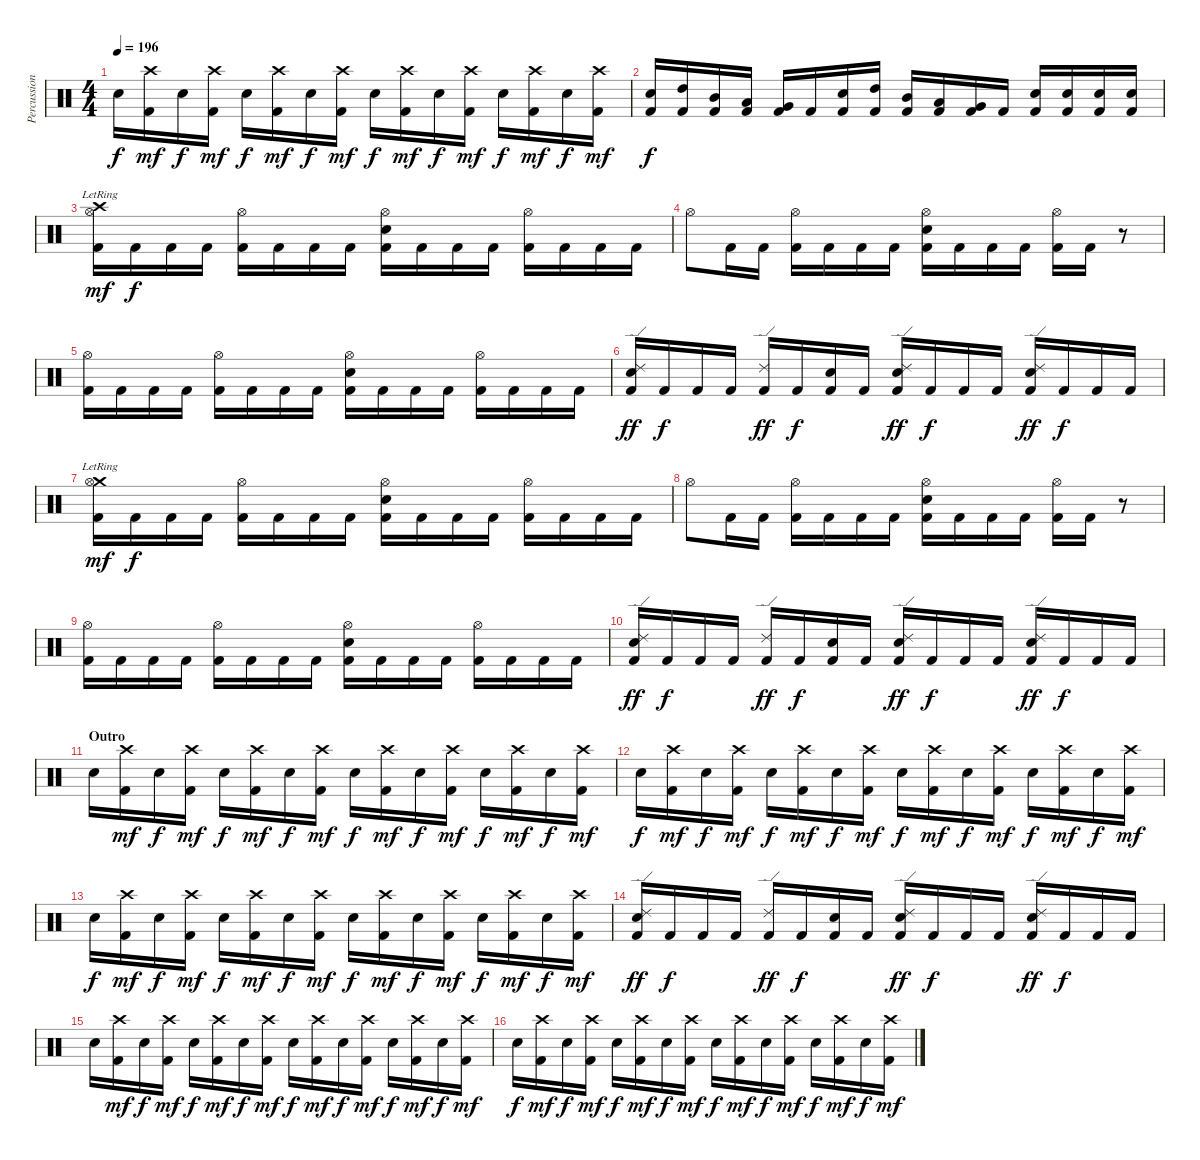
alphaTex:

\track ("Percussions" "Percussion") {instrument percussion}
\staff {score}
\articulation defaults
\ts (4 4)
\tempo 196
\clef neutral
\ks c "Electric Snare (hit)".16{dy f}
("Crash high (hit)" "Kick (hit) 2").16{dy mf} "Electric Snare (hit)".16{dy f} ("Crash high (hit)" "Kick (hit) 2").16{dy mf} "Electric Snare (hit)".16{dy f} ("Crash high (hit)" "Kick (hit) 2").16{dy mf} "Electric Snare (hit)".16{dy f} ("Crash high (hit)" "Kick (hit) 2").16{dy mf} "Electric Snare (hit)".16{dy f} ("Crash high (hit)" "Kick (hit) 2").16{dy mf} "Electric Snare (hit)".16{dy f} ("Crash high (hit)" "Kick (hit) 2").16{dy mf} "Electric Snare (hit)".16{dy f} ("Crash high (hit)" "Kick (hit) 2").16{dy mf} "Electric Snare (hit)".16{dy f} ("Crash high (hit)" "Kick (hit) 2").16{dy mf} |
("Electric Snare (hit)" "Kick (hit) 2").16{dy f} ("High Tom (hit)" "Kick (hit) 2").16 ("Mid Tom (hit)" "Kick (hit) 2").16 ("Low Tom (hit)" "Kick (hit) 2").16 ("Very Low Tom (hit)" "Kick (hit) 2").16 "Kick (hit) 2".16 ("Electric Snare (hit)" "Kick (hit) 2").16 ("High Tom (hit)" "Kick (hit) 2").16 ("Mid Tom (hit)" "Kick (hit) 2").16 ("Low Tom (hit)" "Kick (hit) 2").16 ("Very Low Tom (hit)" "Kick (hit) 2").16 "Kick (hit) 2".16 ("Electric Snare (hit)" "Kick (hit) 2").16 ("Electric Snare (hit)" "Kick (hit) 2").16 ("Electric Snare (hit)" "Kick (hit) 2").16 ("Electric Snare (hit)" "Kick (hit) 2").16 |
("Crash high (hit)"{lr} "Hi-Hat (open)" "Kick (hit) 2").16{dy mf} "Kick (hit) 2".16{dy f} "Kick (hit) 2".16 "Kick (hit) 2".16 ("Hi-Hat (open)" "Kick (hit) 2").16 "Kick (hit) 2".16 "Kick (hit) 2".16 "Kick (hit) 2".16 ("Hi-Hat (open)" "Electric Snare (hit)" "Kick (hit) 2").16 "Kick (hit) 2".16 "Kick (hit) 2".16 "Kick (hit) 2".16 ("Hi-Hat (open)" "Kick (hit) 2").16 "Kick (hit) 2".16 "Kick (hit) 2".16 "Kick (hit) 2".16 |
"Hi-Hat (open)".8 "Kick (hit) 2".16 "Kick (hit) 2".16 ("Hi-Hat (open)" "Kick (hit) 2").16 "Kick (hit) 2".16 "Kick (hit) 2".16 "Kick (hit) 2".16 ("Hi-Hat (open)" "Electric Snare (hit)" "Kick (hit) 2").16 "Kick (hit) 2".16 "Kick (hit) 2".16 "Kick (hit) 2".16 ("Hi-Hat (open)" "Kick (hit) 2").16 "Kick (hit) 2".16 r.8 |
("Hi-Hat (open)" "Kick (hit) 2").16 "Kick (hit) 2".16 "Kick (hit) 2".16 "Kick (hit) 2".16 ("Hi-Hat (open)" "Kick (hit) 2").16 "Kick (hit) 2".16 "Kick (hit) 2".16 "Kick (hit) 2".16 ("Hi-Hat (open)" "Electric Snare (hit)" "Kick (hit) 2").16 "Kick (hit) 2".16 "Kick (hit) 2".16 "Kick (hit) 2".16 ("Hi-Hat (open)" "Kick (hit) 2").16 "Kick (hit) 2".16 "Kick (hit) 2".16 "Kick (hit) 2".16 |
("Ride (edge) 2" "Electric Snare (hit)" "Kick (hit) 2").16{dy ff} "Kick (hit) 2".16{dy f} "Kick (hit) 2".16 "Kick (hit) 2".16 ("Ride (edge) 2" "Kick (hit) 2").16{dy ff} "Kick (hit) 2".16{dy f} ("Electric Snare (hit)" "Kick (hit) 2").16 "Kick (hit) 2".16 ("Ride (edge) 2" "Electric Snare (hit)" "Kick (hit) 2").16{dy ff} "Kick (hit) 2".16{dy f} "Kick (hit) 2".16 "Kick (hit) 2".16 ("Ride (edge) 2" "Electric Snare (hit)" "Kick (hit) 2").16{dy ff} "Kick (hit) 2".16{dy f} "Kick (hit) 2".16 "Kick (hit) 2".16 |
("Crash medium (hit)"{lr} "Hi-Hat (open)" "Kick (hit) 2").16{dy mf} "Kick (hit) 2".16{dy f} "Kick (hit) 2".16 "Kick (hit) 2".16 ("Hi-Hat (open)" "Kick (hit) 2").16 "Kick (hit) 2".16 "Kick (hit) 2".16 "Kick (hit) 2".16 ("Hi-Hat (open)" "Electric Snare (hit)" "Kick (hit) 2").16 "Kick (hit) 2".16 "Kick (hit) 2".16 "Kick (hit) 2".16 ("Hi-Hat (open)" "Kick (hit) 2").16 "Kick (hit) 2".16 "Kick (hit) 2".16 "Kick (hit) 2".16 |
"Hi-Hat (open)".8 "Kick (hit) 2".16 "Kick (hit) 2".16 ("Hi-Hat (open)" "Kick (hit) 2").16 "Kick (hit) 2".16 "Kick (hit) 2".16 "Kick (hit) 2".16 ("Hi-Hat (open)" "Electric Snare (hit)" "Kick (hit) 2").16 "Kick (hit) 2".16 "Kick (hit) 2".16 "Kick (hit) 2".16 ("Hi-Hat (open)" "Kick (hit) 2").16 "Kick (hit) 2".16 r.8 |
("Hi-Hat (open)" "Kick (hit) 2").16 "Kick (hit) 2".16 "Kick (hit) 2".16 "Kick (hit) 2".16 ("Hi-Hat (open)" "Kick (hit) 2").16 "Kick (hit) 2".16 "Kick (hit) 2".16 "Kick (hit) 2".16 ("Hi-Hat (open)" "Electric Snare (hit)" "Kick (hit) 2").16 "Kick (hit) 2".16 "Kick (hit) 2".16 "Kick (hit) 2".16 ("Hi-Hat (open)" "Kick (hit) 2").16 "Kick (hit) 2".16 "Kick (hit) 2".16 "Kick (hit) 2".16 |
("Ride (edge) 2" "Electric Snare (hit)" "Kick (hit) 2").16{dy ff} "Kick (hit) 2".16{dy f} "Kick (hit) 2".16 "Kick (hit) 2".16 ("Ride (edge) 2" "Kick (hit) 2").16{dy ff} "Kick (hit) 2".16{dy f} ("Electric Snare (hit)" "Kick (hit) 2").16 "Kick (hit) 2".16 ("Ride (edge) 2" "Electric Snare (hit)" "Kick (hit) 2").16{dy ff} "Kick (hit) 2".16{dy f} "Kick (hit) 2".16 "Kick (hit) 2".16 ("Ride (edge) 2" "Electric Snare (hit)" "Kick (hit) 2").16{dy ff} "Kick (hit) 2".16{dy f} "Kick (hit) 2".16 "Kick (hit) 2".16 |
\section ("" "Outro")
"Electric Snare (hit)".16 ("Crash high (hit)" "Kick (hit) 2").16{dy mf} "Electric Snare (hit)".16{dy f} ("Crash high (hit)" "Kick (hit) 2").16{dy mf} "Electric Snare (hit)".16{dy f} ("Crash high (hit)" "Kick (hit) 2").16{dy mf} "Electric Snare (hit)".16{dy f} ("Crash high (hit)" "Kick (hit) 2").16{dy mf} "Electric Snare (hit)".16{dy f} ("Crash high (hit)" "Kick (hit) 2").16{dy mf} "Electric Snare (hit)".16{dy f} ("Crash high (hit)" "Kick (hit) 2").16{dy mf} "Electric Snare (hit)".16{dy f} ("Crash high (hit)" "Kick (hit) 2").16{dy mf} "Electric Snare (hit)".16{dy f} ("Crash high (hit)" "Kick (hit) 2").16{dy mf} |
"Electric Snare (hit)".16{dy f} ("Crash high (hit)" "Kick (hit) 2").16{dy mf} "Electric Snare (hit)".16{dy f} ("Crash high (hit)" "Kick (hit) 2").16{dy mf} "Electric Snare (hit)".16{dy f} ("Crash high (hit)" "Kick (hit) 2").16{dy mf} "Electric Snare (hit)".16{dy f} ("Crash high (hit)" "Kick (hit) 2").16{dy mf} "Electric Snare (hit)".16{dy f} ("Crash high (hit)" "Kick (hit) 2").16{dy mf} "Electric Snare (hit)".16{dy f} ("Crash high (hit)" "Kick (hit) 2").16{dy mf} "Electric Snare (hit)".16{dy f} ("Crash high (hit)" "Kick (hit) 2").16{dy mf} "Electric Snare (hit)".16{dy f} ("Crash high (hit)" "Kick (hit) 2").16{dy mf} |
"Electric Snare (hit)".16{dy f} ("Crash high (hit)" "Kick (hit) 2").16{dy mf} "Electric Snare (hit)".16{dy f} ("Crash high (hit)" "Kick (hit) 2").16{dy mf} "Electric Snare (hit)".16{dy f} ("Crash high (hit)" "Kick (hit) 2").16{dy mf} "Electric Snare (hit)".16{dy f} ("Crash high (hit)" "Kick (hit) 2").16{dy mf} "Electric Snare (hit)".16{dy f} ("Crash high (hit)" "Kick (hit) 2").16{dy mf} "Electric Snare (hit)".16{dy f} ("Crash high (hit)" "Kick (hit) 2").16{dy mf} "Electric Snare (hit)".16{dy f} ("Crash high (hit)" "Kick (hit) 2").16{dy mf} "Electric Snare (hit)".16{dy f} ("Crash high (hit)" "Kick (hit) 2").16{dy mf} |
("Ride (edge) 2" "Electric Snare (hit)" "Kick (hit) 2").16{dy ff} "Kick (hit) 2".16{dy f} "Kick (hit) 2".16 "Kick (hit) 2".16 ("Ride (edge) 2" "Kick (hit) 2").16{dy ff} "Kick (hit) 2".16{dy f} ("Electric Snare (hit)" "Kick (hit) 2").16 "Kick (hit) 2".16 ("Ride (edge) 2" "Electric Snare (hit)" "Kick (hit) 2").16{dy ff} "Kick (hit) 2".16{dy f} "Kick (hit) 2".16 "Kick (hit) 2".16 ("Ride (edge) 2" "Electric Snare (hit)" "Kick (hit) 2").16{dy ff} "Kick (hit) 2".16{dy f} "Kick (hit) 2".16 "Kick (hit) 2".16 |
"Electric Snare (hit)".16 ("Crash high (hit)" "Kick (hit) 2").16{dy mf} "Electric Snare (hit)".16{dy f} ("Crash high (hit)" "Kick (hit) 2").16{dy mf} "Electric Snare (hit)".16{dy f} ("Crash high (hit)" "Kick (hit) 2").16{dy mf} "Electric Snare (hit)".16{dy f} ("Crash high (hit)" "Kick (hit) 2").16{dy mf} "Electric Snare (hit)".16{dy f} ("Crash high (hit)" "Kick (hit) 2").16{dy mf} "Electric Snare (hit)".16{dy f} ("Crash high (hit)" "Kick (hit) 2").16{dy mf} "Electric Snare (hit)".16{dy f} ("Crash high (hit)" "Kick (hit) 2").16{dy mf} "Electric Snare (hit)".16{dy f} ("Crash high (hit)" "Kick (hit) 2").16{dy mf} |
"Electric Snare (hit)".16{dy f} ("Crash high (hit)" "Kick (hit) 2").16{dy mf} "Electric Snare (hit)".16{dy f} ("Crash high (hit)" "Kick (hit) 2").16{dy mf} "Electric Snare (hit)".16{dy f} ("Crash high (hit)" "Kick (hit) 2").16{dy mf} "Electric Snare (hit)".16{dy f} ("Crash high (hit)" "Kick (hit) 2").16{dy mf} "Electric Snare (hit)".16{dy f} ("Crash high (hit)" "Kick (hit) 2").16{dy mf} "Electric Snare (hit)".16{dy f} ("Crash high (hit)" "Kick (hit) 2").16{dy mf} "Electric Snare (hit)".16{dy f} ("Crash high (hit)" "Kick (hit) 2").16{dy mf} "Electric Snare (hit)".16{dy f} ("Crash high (hit)" "Kick (hit) 2").16{dy mf}
